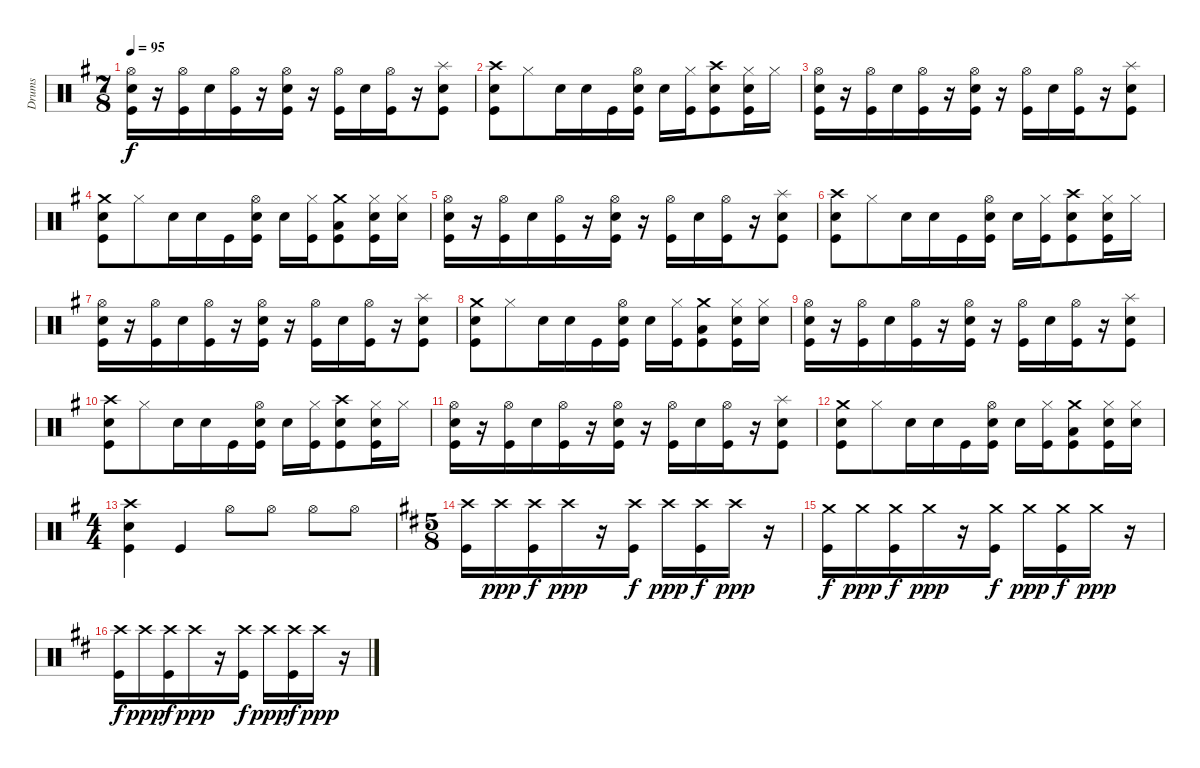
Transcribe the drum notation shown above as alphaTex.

\track ("Drums" "Drums") {instrument percussion}
\staff {score}
\articulation defaults
\ts (7 8)
\tempo 95
\clef neutral
\ks eminor
("Hi-Hat (open)" "Snare (hit) 2" "Kick (hit)").16{dy f} r.16 ("Hi-Hat (open)" "Kick (hit)").16 "Snare (hit) 2".16 ("Hi-Hat (open)" "Kick (hit)").16 r.16 ("Hi-Hat (open)" "Snare (hit) 2" "Kick (hit)").16 r.16 ("Hi-Hat (open)" "Kick (hit)").16 "Snare (hit) 2".16 ("Hi-Hat (open)" "Kick (hit)").16 r.16 ("Splash (hit)" "Snare (hit) 2" "Kick (hit)").8 |
("Crash high (hit)" "Snare (hit) 2" "Kick (hit)").8 "Hi-Hat (closed)".8 "Snare (hit) 2".16 "Snare (hit) 2".16 "Kick (hit)".16 ("Hi-Hat (open)" "Snare (hit) 2" "Kick (hit)").16 "Snare (hit) 2".16 ("Hi-Hat (closed)" "Kick (hit)").16 ("Crash high (hit)" "Snare (hit) 2" "Kick (hit)").8 ("Hi-Hat (closed)" "Snare (hit) 2" "Kick (hit)").16 "Hi-Hat (closed)".16 |
("Hi-Hat (open)" "Snare (hit) 2" "Kick (hit)").16 r.16 ("Hi-Hat (open)" "Kick (hit)").16 "Snare (hit) 2".16 ("Hi-Hat (open)" "Kick (hit)").16 r.16 ("Hi-Hat (open)" "Snare (hit) 2" "Kick (hit)").16 r.16 ("Hi-Hat (open)" "Kick (hit)").16 "Snare (hit) 2".16 ("Hi-Hat (open)" "Kick (hit)").16 r.16 ("Splash (hit)" "Snare (hit) 2" "Kick (hit)").8 |
("Crash medium (hit)" "Snare (hit) 2" "Kick (hit)").8 "Hi-Hat (closed)".8 "Electric Snare (hit)".16 "Electric Snare (hit)".16 "Kick (hit)".16 ("Hi-Hat (open)" "Snare (hit) 2" "Kick (hit)").16 "Electric Snare (hit)".16 ("Hi-Hat (closed)" "Kick (hit)").16 ("Crash medium (hit)" "Low Tom (hit)" "Kick (hit)").8 ("Hi-Hat (closed)" "Snare (hit) 2" "Kick (hit)").16 ("Hi-Hat (closed)" "Snare (hit) 2").16 |
("Hi-Hat (open)" "Snare (hit) 2" "Kick (hit)").16 r.16 ("Hi-Hat (open)" "Kick (hit)").16 "Snare (hit) 2".16 ("Hi-Hat (open)" "Kick (hit)").16 r.16 ("Hi-Hat (open)" "Snare (hit) 2" "Kick (hit)").16 r.16 ("Hi-Hat (open)" "Kick (hit)").16 "Snare (hit) 2".16 ("Hi-Hat (open)" "Kick (hit)").16 r.16 ("Splash (hit)" "Snare (hit) 2" "Kick (hit)").8 |
("Crash high (hit)" "Snare (hit) 2" "Kick (hit)").8 "Hi-Hat (closed)".8 "Snare (hit) 2".16 "Snare (hit) 2".16 "Kick (hit)".16 ("Hi-Hat (open)" "Snare (hit) 2" "Kick (hit)").16 "Snare (hit) 2".16 ("Hi-Hat (closed)" "Kick (hit)").16 ("Crash high (hit)" "Snare (hit) 2" "Kick (hit)").8 ("Hi-Hat (closed)" "Snare (hit) 2" "Kick (hit)").16 "Hi-Hat (closed)".16 |
("Hi-Hat (open)" "Snare (hit) 2" "Kick (hit)").16 r.16 ("Hi-Hat (open)" "Kick (hit)").16 "Snare (hit) 2".16 ("Hi-Hat (open)" "Kick (hit)").16 r.16 ("Hi-Hat (open)" "Snare (hit) 2" "Kick (hit)").16 r.16 ("Hi-Hat (open)" "Kick (hit)").16 "Snare (hit) 2".16 ("Hi-Hat (open)" "Kick (hit)").16 r.16 ("Splash (hit)" "Snare (hit) 2" "Kick (hit)").8 |
("Crash medium (hit)" "Snare (hit) 2" "Kick (hit)").8 "Hi-Hat (closed)".8 "Electric Snare (hit)".16 "Electric Snare (hit)".16 "Kick (hit)".16 ("Hi-Hat (open)" "Snare (hit) 2" "Kick (hit)").16 "Electric Snare (hit)".16 ("Hi-Hat (closed)" "Kick (hit)").16 ("Crash medium (hit)" "Low Tom (hit)" "Kick (hit)").8 ("Hi-Hat (closed)" "Snare (hit) 2" "Kick (hit)").16 ("Hi-Hat (closed)" "Snare (hit) 2").16 |
("Hi-Hat (open)" "Snare (hit) 2" "Kick (hit)").16 r.16 ("Hi-Hat (open)" "Kick (hit)").16 "Snare (hit) 2".16 ("Hi-Hat (open)" "Kick (hit)").16 r.16 ("Hi-Hat (open)" "Snare (hit) 2" "Kick (hit)").16 r.16 ("Hi-Hat (open)" "Kick (hit)").16 "Snare (hit) 2".16 ("Hi-Hat (open)" "Kick (hit)").16 r.16 ("Splash (hit)" "Snare (hit) 2" "Kick (hit)").8 |
("Crash high (hit)" "Snare (hit) 2" "Kick (hit)").8 "Hi-Hat (closed)".8 "Snare (hit) 2".16 "Snare (hit) 2".16 "Kick (hit)".16 ("Hi-Hat (open)" "Snare (hit) 2" "Kick (hit)").16 "Snare (hit) 2".16 ("Hi-Hat (closed)" "Kick (hit)").16 ("Crash high (hit)" "Snare (hit) 2" "Kick (hit)").8 ("Hi-Hat (closed)" "Snare (hit) 2" "Kick (hit)").16 "Hi-Hat (closed)".16 |
("Hi-Hat (open)" "Snare (hit) 2" "Kick (hit)").16 r.16 ("Hi-Hat (open)" "Kick (hit)").16 "Snare (hit) 2".16 ("Hi-Hat (open)" "Kick (hit)").16 r.16 ("Hi-Hat (open)" "Snare (hit) 2" "Kick (hit)").16 r.16 ("Hi-Hat (open)" "Kick (hit)").16 "Snare (hit) 2".16 ("Hi-Hat (open)" "Kick (hit)").16 r.16 ("Splash (hit)" "Snare (hit) 2" "Kick (hit)").8 |
("Crash medium (hit)" "Snare (hit) 2" "Kick (hit)").8 "Hi-Hat (closed)".8 "Electric Snare (hit)".16 "Electric Snare (hit)".16 "Kick (hit)".16 ("Hi-Hat (open)" "Snare (hit) 2" "Kick (hit)").16 "Electric Snare (hit)".16 ("Hi-Hat (closed)" "Kick (hit)").16 ("Crash medium (hit)" "Low Tom (hit)" "Kick (hit)").8 ("Hi-Hat (closed)" "Snare (hit) 2" "Kick (hit)").16 ("Hi-Hat (closed)" "Snare (hit) 2").16 |
\ts (4 4)
("Crash high (hit)" "Snare (hit) 2" "Kick (hit)").4 "Kick (hit)".4 "Hi-Hat (open)".8 "Hi-Hat (open)".8 "Hi-Hat (open)".8 "Hi-Hat (open)".8 |
\ts (5 8)
\ks bminor
("Crash high (hit)" "Kick (hit)").16 "Crash high (hit)".16{dy ppp} ("Crash high (hit)" "Kick (hit)").16{dy f} "Crash high (hit)".16{dy ppp} r.16 ("Crash high (hit)" "Kick (hit)").16{dy f} "Crash high (hit)".16{dy ppp} ("Crash high (hit)" "Kick (hit)").16{dy f} "Crash high (hit)".16{dy ppp} r.16 |
("Crash medium (hit)" "Kick (hit)").16{dy f} "Crash medium (hit)".16{dy ppp} ("Crash medium (hit)" "Kick (hit)").16{dy f} "Crash medium (hit)".16{dy ppp} r.16 ("Crash medium (hit)" "Kick (hit)").16{dy f} "Crash medium (hit)".16{dy ppp} ("Crash medium (hit)" "Kick (hit)").16{dy f} "Crash medium (hit)".16{dy ppp} r.16 |
("Crash high (hit)" "Kick (hit)").16{dy f} "Crash high (hit)".16{dy ppp} ("Crash high (hit)" "Kick (hit)").16{dy f} "Crash high (hit)".16{dy ppp} r.16 ("Crash high (hit)" "Kick (hit)").16{dy f} "Crash high (hit)".16{dy ppp} ("Crash high (hit)" "Kick (hit)").16{dy f} "Crash high (hit)".16{dy ppp} r.16
